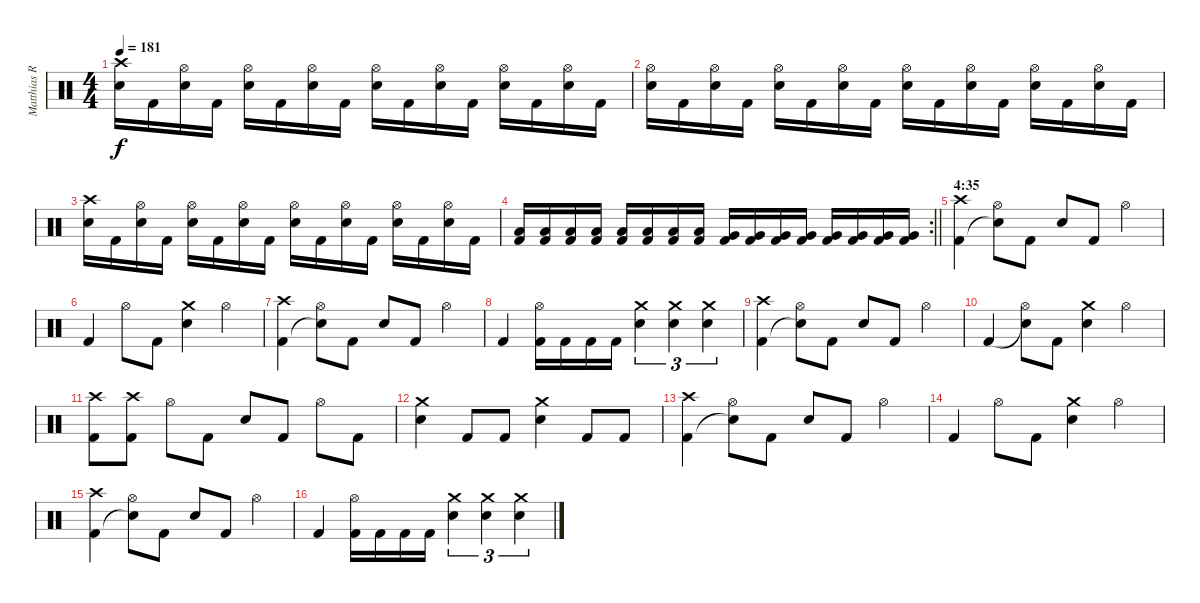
\track ("Matthias R." "Matthias R") {instrument percussion}
\staff {score}
\articulation defaults
\ts (4 4)
\tempo 181
\clef neutral
\ks c
("Snare (hit) 2" "Crash high (hit)").16{dy f} "Kick (hit) 2".16 ("Snare (hit) 2" "Hi-Hat (open)").16 "Kick (hit) 2".16 ("Snare (hit) 2" "Hi-Hat (open)").16 "Kick (hit) 2".16 ("Snare (hit) 2" "Hi-Hat (open)").16 "Kick (hit) 2".16 ("Snare (hit) 2" "Hi-Hat (open)").16 "Kick (hit) 2".16 ("Snare (hit) 2" "Hi-Hat (open)").16 "Kick (hit) 2".16 ("Snare (hit) 2" "Hi-Hat (open)").16 "Kick (hit) 2".16 ("Snare (hit) 2" "Hi-Hat (open)").16 "Kick (hit) 2".16 |
("Snare (hit) 2" "Hi-Hat (open)").16 "Kick (hit) 2".16 ("Snare (hit) 2" "Hi-Hat (open)").16 "Kick (hit) 2".16 ("Snare (hit) 2" "Hi-Hat (open)").16 "Kick (hit) 2".16 ("Snare (hit) 2" "Hi-Hat (open)").16 "Kick (hit) 2".16 ("Snare (hit) 2" "Hi-Hat (open)").16 "Kick (hit) 2".16 ("Snare (hit) 2" "Hi-Hat (open)").16 "Kick (hit) 2".16 ("Snare (hit) 2" "Hi-Hat (open)").16 "Kick (hit) 2".16 ("Snare (hit) 2" "Hi-Hat (open)").16 "Kick (hit) 2".16 |
("Snare (hit) 2" "Crash high (hit)").16 "Kick (hit) 2".16 ("Snare (hit) 2" "Hi-Hat (open)").16 "Kick (hit) 2".16 ("Snare (hit) 2" "Hi-Hat (open)").16 "Kick (hit) 2".16 ("Snare (hit) 2" "Hi-Hat (open)").16 "Kick (hit) 2".16 ("Snare (hit) 2" "Hi-Hat (open)").16 "Kick (hit) 2".16 ("Snare (hit) 2" "Hi-Hat (open)").16 "Kick (hit) 2".16 ("Snare (hit) 2" "Hi-Hat (open)").16 "Kick (hit) 2".16 ("Snare (hit) 2" "Hi-Hat (open)").16 "Kick (hit) 2".16 |
\rc 2
\barLineRight lightlight
("Kick (hit) 2" "Low Tom (hit)").16 ("Kick (hit) 2" "Low Tom (hit)").16 ("Kick (hit) 2" "Low Tom (hit)").16 ("Kick (hit) 2" "Low Tom (hit)").16 ("Kick (hit) 2" "Low Tom (hit)").16 ("Kick (hit) 2" "Low Tom (hit)").16 ("Kick (hit) 2" "Low Tom (hit)").16 ("Kick (hit) 2" "Low Tom (hit)").16 ("Kick (hit) 2" "Very Low Tom (hit)").16 ("Kick (hit) 2" "Very Low Tom (hit)").16 ("Kick (hit) 2" "Very Low Tom (hit)").16 ("Kick (hit) 2" "Very Low Tom (hit)").16 ("Kick (hit) 2" "Very Low Tom (hit)").16 ("Kick (hit) 2" "Very Low Tom (hit)").16 ("Kick (hit) 2" "Very Low Tom (hit)").16 ("Kick (hit) 2" "Very Low Tom (hit)").16 |
\section ("" "4:35")
("Kick (hit) 2" "Crash high (hit)").4 ("Snare (hit)"{t} "Hi-Hat (open)").8 "Kick (hit) 2".8 "Snare (hit) 2".8 "Kick (hit) 2".8 "Hi-Hat (open)".4 |
"Kick (hit) 2".4 "Hi-Hat (open)".8 "Kick (hit) 2".8 ("Snare (hit) 2" "Crash medium (hit)").4 "Hi-Hat (open)".4 |
("Kick (hit) 2" "Crash high (hit)").4 ("Snare (hit)"{t} "Hi-Hat (open)").8 "Kick (hit) 2".8 "Snare (hit) 2".8 "Kick (hit) 2".8 "Hi-Hat (open)".4 |
"Kick (hit) 2".4 ("Kick (hit) 2" "Hi-Hat (open)").16 "Kick (hit) 2".16 "Kick (hit) 2".16 "Kick (hit) 2".16 ("Snare (hit) 2" "Crash medium (hit)").4{tu (3 2)} ("Snare (hit) 2" "Crash medium (hit)").4{tu (3 2)} ("Snare (hit) 2" "Crash medium (hit)").4{tu (3 2)} |
("Kick (hit) 2" "Crash high (hit)").4 ("Snare (hit)"{t} "Hi-Hat (open)").8 "Kick (hit) 2".8 "Snare (hit) 2".8 "Kick (hit) 2".8 "Hi-Hat (open)".4 |
"Kick (hit) 2".4 ("Snare (hit)"{t} "Hi-Hat (open)").8 "Kick (hit) 2".8 ("Snare (hit) 2" "Crash medium (hit)").4 "Hi-Hat (open)".4 |
("Kick (hit) 2" "Crash high (hit)").8 ("Kick (hit) 2" "Crash high (hit)").8 "Hi-Hat (open)".8 "Kick (hit) 2".8 "Snare (hit) 2".8 "Kick (hit) 2".8 "Hi-Hat (open)".8 "Kick (hit) 2".8 |
("Snare (hit) 2" "Crash medium (hit)").4 "Kick (hit) 2".8 "Kick (hit) 2".8 ("Snare (hit) 2" "Crash medium (hit)").4 "Kick (hit) 2".8 "Kick (hit) 2".8 |
("Kick (hit) 2" "Crash high (hit)").4 ("Snare (hit)"{t} "Hi-Hat (open)").8 "Kick (hit) 2".8 "Snare (hit) 2".8 "Kick (hit) 2".8 "Hi-Hat (open)".4 |
"Kick (hit) 2".4 "Hi-Hat (open)".8 "Kick (hit) 2".8 ("Snare (hit) 2" "Crash medium (hit)").4 "Hi-Hat (open)".4 |
("Kick (hit) 2" "Crash high (hit)").4 ("Snare (hit)"{t} "Hi-Hat (open)").8 "Kick (hit) 2".8 "Snare (hit) 2".8 "Kick (hit) 2".8 "Hi-Hat (open)".4 |
"Kick (hit) 2".4 ("Kick (hit) 2" "Hi-Hat (open)").16 "Kick (hit) 2".16 "Kick (hit) 2".16 "Kick (hit) 2".16 ("Snare (hit) 2" "Crash medium (hit)").4{tu (3 2)} ("Snare (hit) 2" "Crash medium (hit)").4{tu (3 2)} ("Snare (hit) 2" "Crash medium (hit)").4{tu (3 2)}
